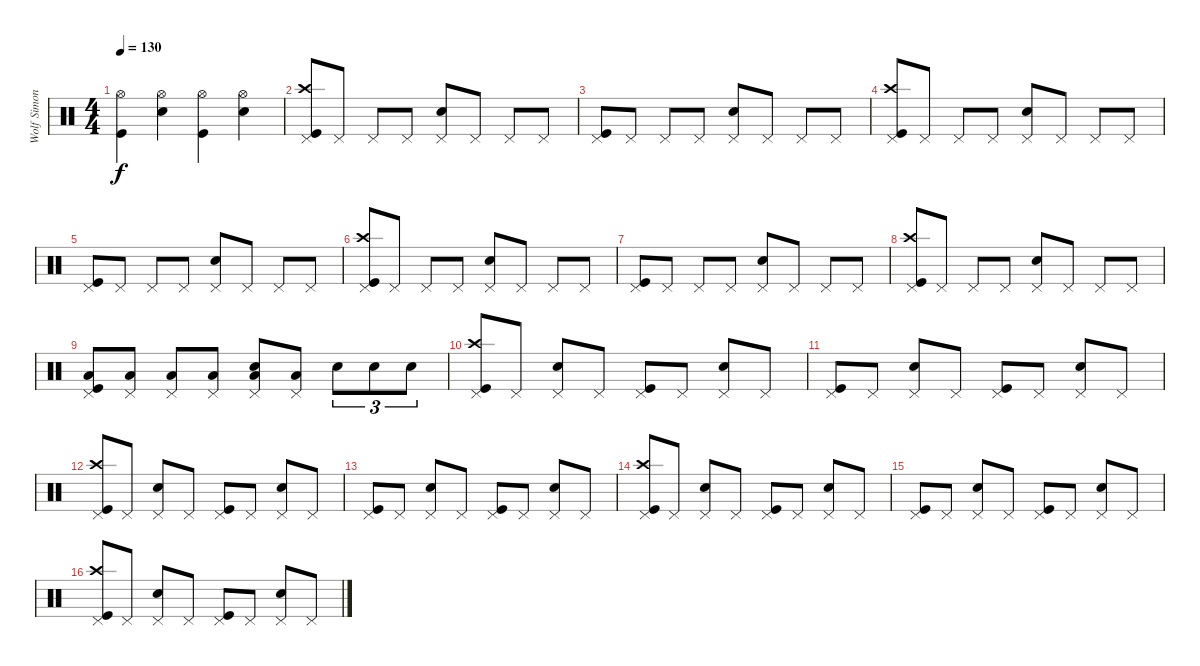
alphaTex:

\track ("Wolf Simon" "Wolf Simon") {instrument percussion}
\staff {score}
\articulation defaults
\ts (4 4)
\tempo 130
\clef neutral
\ks c
("Hi-Hat (open)" "Kick (hit)").4{dy f} ("Hi-Hat (open)" "Electric Snare (hit)").4 ("Hi-Hat (open)" "Kick (hit)").4 ("Hi-Hat (open)" "Electric Snare (hit)").4 |
("Crash high (hit)" "Pedal Hi-Hat (hit)" "Kick (hit)").8 "Pedal Hi-Hat (hit)".8 "Pedal Hi-Hat (hit)".8 "Pedal Hi-Hat (hit)".8 ("Pedal Hi-Hat (hit)" "Electric Snare (hit)").8 "Pedal Hi-Hat (hit)".8 "Pedal Hi-Hat (hit)".8 "Pedal Hi-Hat (hit)".8 |
("Pedal Hi-Hat (hit)" "Kick (hit)").8 "Pedal Hi-Hat (hit)".8 "Pedal Hi-Hat (hit)".8 "Pedal Hi-Hat (hit)".8 ("Pedal Hi-Hat (hit)" "Electric Snare (hit)").8 "Pedal Hi-Hat (hit)".8 "Pedal Hi-Hat (hit)".8 "Pedal Hi-Hat (hit)".8 |
("Crash high (hit)" "Pedal Hi-Hat (hit)" "Kick (hit)").8 "Pedal Hi-Hat (hit)".8 "Pedal Hi-Hat (hit)".8 "Pedal Hi-Hat (hit)".8 ("Pedal Hi-Hat (hit)" "Electric Snare (hit)").8 "Pedal Hi-Hat (hit)".8 "Pedal Hi-Hat (hit)".8 "Pedal Hi-Hat (hit)".8 |
("Pedal Hi-Hat (hit)" "Kick (hit)").8 "Pedal Hi-Hat (hit)".8 "Pedal Hi-Hat (hit)".8 "Pedal Hi-Hat (hit)".8 ("Pedal Hi-Hat (hit)" "Electric Snare (hit)").8 "Pedal Hi-Hat (hit)".8 "Pedal Hi-Hat (hit)".8 "Pedal Hi-Hat (hit)".8 |
("Crash high (hit)" "Pedal Hi-Hat (hit)" "Kick (hit)").8 "Pedal Hi-Hat (hit)".8 "Pedal Hi-Hat (hit)".8 "Pedal Hi-Hat (hit)".8 ("Pedal Hi-Hat (hit)" "Electric Snare (hit)").8 "Pedal Hi-Hat (hit)".8 "Pedal Hi-Hat (hit)".8 "Pedal Hi-Hat (hit)".8 |
("Pedal Hi-Hat (hit)" "Kick (hit)").8 "Pedal Hi-Hat (hit)".8 "Pedal Hi-Hat (hit)".8 "Pedal Hi-Hat (hit)".8 ("Pedal Hi-Hat (hit)" "Electric Snare (hit)").8 "Pedal Hi-Hat (hit)".8 "Pedal Hi-Hat (hit)".8 "Pedal Hi-Hat (hit)".8 |
("Crash high (hit)" "Pedal Hi-Hat (hit)" "Kick (hit)").8 "Pedal Hi-Hat (hit)".8 "Pedal Hi-Hat (hit)".8 "Pedal Hi-Hat (hit)".8 ("Pedal Hi-Hat (hit)" "Electric Snare (hit)").8 "Pedal Hi-Hat (hit)".8 "Pedal Hi-Hat (hit)".8 "Pedal Hi-Hat (hit)".8 |
("Pedal Hi-Hat (hit)" "Low Tom (hit)" "Kick (hit)").8 ("Pedal Hi-Hat (hit)" "Low Tom (hit)").8 ("Pedal Hi-Hat (hit)" "Low Tom (hit)").8 ("Pedal Hi-Hat (hit)" "Low Tom (hit)").8 ("Pedal Hi-Hat (hit)" "Electric Snare (hit)" "Low Tom (hit)").8 ("Pedal Hi-Hat (hit)" "Low Tom (hit)").8 "Electric Snare (hit)".8{tu (3 2)} "Electric Snare (hit)".8{tu (3 2)} "Electric Snare (hit)".8{tu (3 2)} |
("Crash high (hit)" "Pedal Hi-Hat (hit)" "Kick (hit)").8 "Pedal Hi-Hat (hit)".8 ("Pedal Hi-Hat (hit)" "Electric Snare (hit)").8 "Pedal Hi-Hat (hit)".8 ("Pedal Hi-Hat (hit)" "Kick (hit)").8 "Pedal Hi-Hat (hit)".8 ("Pedal Hi-Hat (hit)" "Electric Snare (hit)").8 "Pedal Hi-Hat (hit)".8 |
("Pedal Hi-Hat (hit)" "Kick (hit)").8 "Pedal Hi-Hat (hit)".8 ("Pedal Hi-Hat (hit)" "Electric Snare (hit)").8 "Pedal Hi-Hat (hit)".8 ("Pedal Hi-Hat (hit)" "Kick (hit)").8 "Pedal Hi-Hat (hit)".8 ("Pedal Hi-Hat (hit)" "Electric Snare (hit)").8 "Pedal Hi-Hat (hit)".8 |
("Crash high (hit)" "Pedal Hi-Hat (hit)" "Kick (hit)").8 "Pedal Hi-Hat (hit)".8 ("Pedal Hi-Hat (hit)" "Electric Snare (hit)").8 "Pedal Hi-Hat (hit)".8 ("Pedal Hi-Hat (hit)" "Kick (hit)").8 "Pedal Hi-Hat (hit)".8 ("Pedal Hi-Hat (hit)" "Electric Snare (hit)").8 "Pedal Hi-Hat (hit)".8 |
("Pedal Hi-Hat (hit)" "Kick (hit)").8 "Pedal Hi-Hat (hit)".8 ("Pedal Hi-Hat (hit)" "Electric Snare (hit)").8 "Pedal Hi-Hat (hit)".8 ("Pedal Hi-Hat (hit)" "Kick (hit)").8 "Pedal Hi-Hat (hit)".8 ("Pedal Hi-Hat (hit)" "Electric Snare (hit)").8 "Pedal Hi-Hat (hit)".8 |
("Crash high (hit)" "Pedal Hi-Hat (hit)" "Kick (hit)").8 "Pedal Hi-Hat (hit)".8 ("Pedal Hi-Hat (hit)" "Electric Snare (hit)").8 "Pedal Hi-Hat (hit)".8 ("Pedal Hi-Hat (hit)" "Kick (hit)").8 "Pedal Hi-Hat (hit)".8 ("Pedal Hi-Hat (hit)" "Electric Snare (hit)").8 "Pedal Hi-Hat (hit)".8 |
("Pedal Hi-Hat (hit)" "Kick (hit)").8 "Pedal Hi-Hat (hit)".8 ("Pedal Hi-Hat (hit)" "Electric Snare (hit)").8 "Pedal Hi-Hat (hit)".8 ("Pedal Hi-Hat (hit)" "Kick (hit)").8 "Pedal Hi-Hat (hit)".8 ("Pedal Hi-Hat (hit)" "Electric Snare (hit)").8 "Pedal Hi-Hat (hit)".8 |
("Crash high (hit)" "Pedal Hi-Hat (hit)" "Kick (hit)").8 "Pedal Hi-Hat (hit)".8 ("Pedal Hi-Hat (hit)" "Electric Snare (hit)").8 "Pedal Hi-Hat (hit)".8 ("Pedal Hi-Hat (hit)" "Kick (hit)").8 "Pedal Hi-Hat (hit)".8 ("Pedal Hi-Hat (hit)" "Electric Snare (hit)").8 "Pedal Hi-Hat (hit)".8
